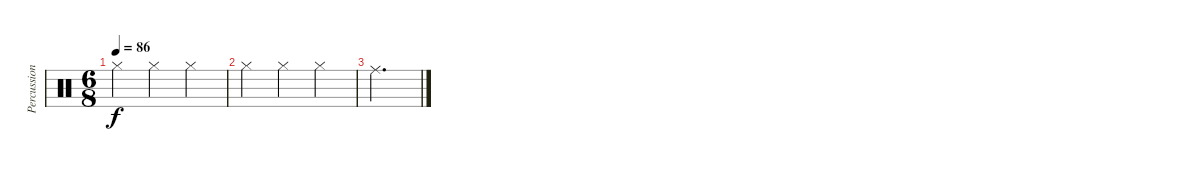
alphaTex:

\track ("Percussion" "Percussion") {instrument percussion}
\staff {score}
\articulation defaults
\ts (6 8)
\tempo 86
\clef neutral
\ks c "Hi-Hat (closed)".4{dy f} "Hi-Hat (closed)".4 "Hi-Hat (closed)".4
|
"Hi-Hat (closed)".4 "Hi-Hat (closed)".4 "Hi-Hat (closed)".4 |
"Ride (middle)".2{d}
